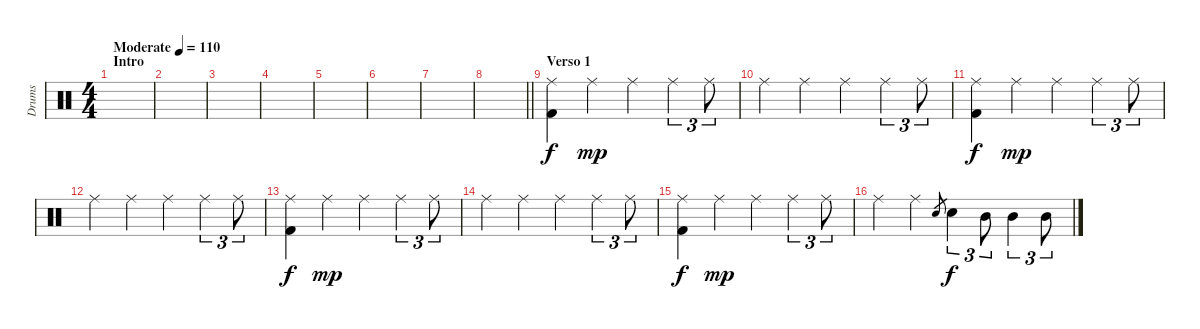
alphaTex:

\track ("Drums" "Drums") {instrument percussion}
\staff {score}
\articulation defaults
\ts (4 4)
\section ("" "Intro")
\tempo (110 "Moderate")
\clef neutral
\ks c
|
|
|
|
|
|
|
\barLineRight lightlight
|
\section ("" "Verso 1")
("Ride (middle)" "Kick (hit) 2").4 "Ride (middle)".4{dy mp} "Ride (middle)".4 "Ride (middle)".4{tu (3 2)} "Ride (middle)".8{tu (3 2)} |
"Ride (middle)".4 "Ride (middle)".4 "Ride (middle)".4 "Ride (middle)".4{tu (3 2)} "Ride (middle)".8{tu (3 2)} |
("Ride (middle)" "Kick (hit) 2").4{dy f} "Ride (middle)".4{dy mp} "Ride (middle)".4 "Ride (middle)".4{tu (3 2)} "Ride (middle)".8{tu (3 2)} |
"Ride (middle)".4 "Ride (middle)".4 "Ride (middle)".4 "Ride (middle)".4{tu (3 2)} "Ride (middle)".8{tu (3 2)} |
("Ride (middle)" "Kick (hit) 2").4{dy f} "Ride (middle)".4{dy mp} "Ride (middle)".4 "Ride (middle)".4{tu (3 2)} "Ride (middle)".8{tu (3 2)} |
"Ride (middle)".4 "Ride (middle)".4 "Ride (middle)".4 "Ride (middle)".4{tu (3 2)} "Ride (middle)".8{tu (3 2)} |
("Ride (middle)" "Kick (hit) 2").4{dy f} "Ride (middle)".4{dy mp} "Ride (middle)".4 "Ride (middle)".4{tu (3 2)} "Ride (middle)".8{tu (3 2)} |
"Ride (middle)".4 "Ride (middle)".4 "Snare (hit) 2".8{gr} "Snare (hit) 2".4{tu (3 2) dy f} "Mid Tom (hit)".8{tu (3 2)} "Mid Tom (hit)".4{tu (3 2)} "Mid Tom (hit)".8{tu (3 2)}
